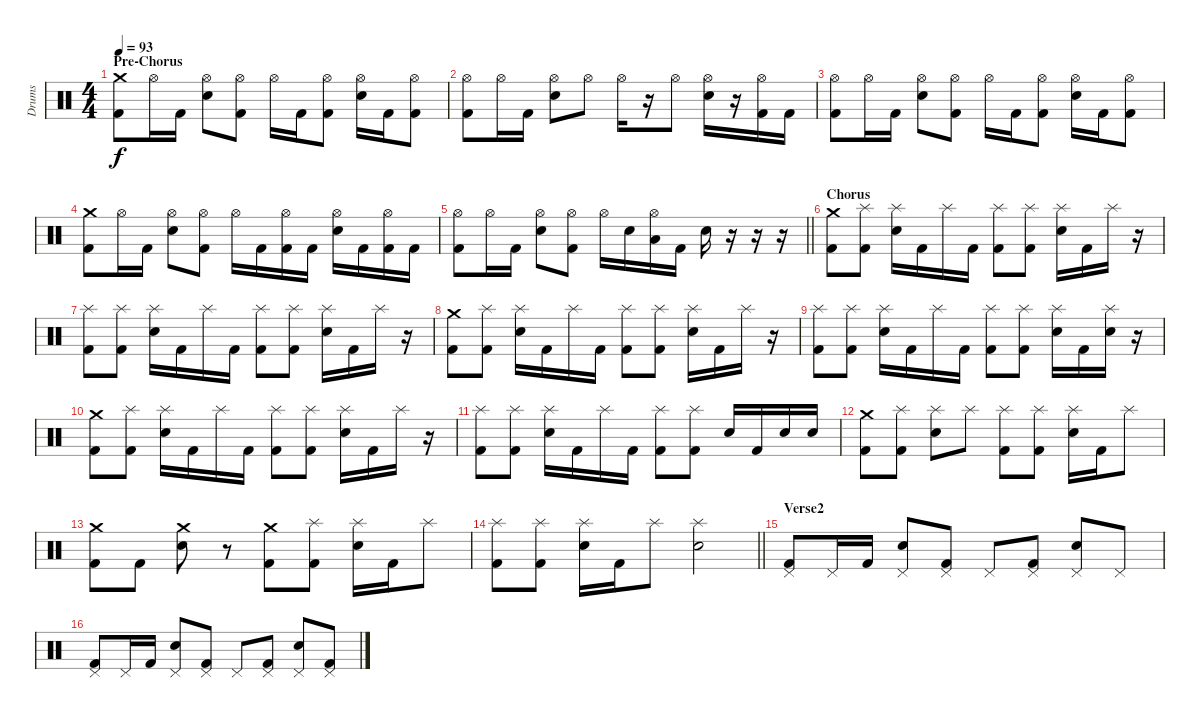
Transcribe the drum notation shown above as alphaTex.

\track ("Drums" "Drums") {instrument percussion}
\staff {score}
\articulation defaults
\ts (4 4)
\section ("" "Pre-Chorus")
\tempo 93
\clef neutral
\ks c
("Crash medium (hit)" "Kick (hit) 2").8{dy f} "Hi-Hat (open)".16 "Kick (hit) 2".16 ("Hi-Hat (open)" "Snare (hit) 2").8 ("Hi-Hat (open)" "Kick (hit) 2").8 "Hi-Hat (open)".16 "Kick (hit) 2".16 ("Hi-Hat (open)" "Kick (hit) 2").8 ("Hi-Hat (open)" "Snare (hit) 2").16 "Kick (hit) 2".16 ("Hi-Hat (open)" "Kick (hit) 2").8 |
("Hi-Hat (open)" "Kick (hit) 2").8 "Hi-Hat (open)".16 "Kick (hit) 2".16 ("Hi-Hat (open)" "Snare (hit) 2").8 "Hi-Hat (open)".8 "Hi-Hat (open)".16 r.16 "Hi-Hat (open)".8 ("Hi-Hat (open)" "Snare (hit) 2").16 r.16 ("Hi-Hat (open)" "Kick (hit) 2").16 "Kick (hit) 2".16 |
("Hi-Hat (open)" "Kick (hit) 2").8 "Hi-Hat (open)".16 "Kick (hit) 2".16 ("Hi-Hat (open)" "Snare (hit) 2").8 ("Hi-Hat (open)" "Kick (hit) 2").8 "Hi-Hat (open)".16 "Kick (hit) 2".16 ("Hi-Hat (open)" "Kick (hit) 2").8 ("Hi-Hat (open)" "Snare (hit) 2").16 "Kick (hit) 2".16 ("Hi-Hat (open)" "Kick (hit) 2").8 |
("Crash medium (hit)" "Kick (hit) 2").8 "Hi-Hat (open)".16 "Kick (hit) 2".16 ("Hi-Hat (open)" "Snare (hit) 2").8 ("Hi-Hat (open)" "Kick (hit) 2").8 "Hi-Hat (open)".16 "Kick (hit) 2".16 ("Hi-Hat (open)" "Kick (hit) 2").16 "Kick (hit) 2".16 ("Hi-Hat (open)" "Snare (hit) 2").16 "Kick (hit) 2".16 ("Hi-Hat (open)" "Kick (hit) 2").16 "Kick (hit) 2".16 |
\barLineRight lightlight
("Hi-Hat (open)" "Kick (hit) 2").8 "Hi-Hat (open)".16 "Kick (hit) 2".16 ("Hi-Hat (open)" "Snare (hit) 2").8 ("Hi-Hat (open)" "Kick (hit) 2").8 "Hi-Hat (open)".16 "Snare (hit) 2".16 ("Hi-Hat (open)" "Low Tom (hit)").16 "Kick (hit) 2".16 "Snare (hit) 2".16 r.16 r.16 r.16 |
\section ("" "Chorus")
("Crash medium (hit)" "Kick (hit) 2").8 ("Splash (hit)" "Kick (hit) 2").8 ("Splash (hit)" "Snare (hit) 2").16 "Kick (hit) 2".16 "Splash (hit)".16 "Kick (hit) 2".16 ("Splash (hit)" "Kick (hit) 2").8 ("Splash (hit)" "Kick (hit) 2").8 ("Splash (hit)" "Snare (hit) 2").16 "Kick (hit) 2".16 "Splash (hit)".16 r.16 |
("Splash (hit)" "Kick (hit) 2").8 ("Splash (hit)" "Kick (hit) 2").8 ("Splash (hit)" "Snare (hit) 2").16 "Kick (hit) 2".16 "Splash (hit)".16 "Kick (hit) 2".16 ("Splash (hit)" "Kick (hit) 2").8 ("Splash (hit)" "Kick (hit) 2").8 ("Splash (hit)" "Snare (hit) 2").16 "Kick (hit) 2".16 "Splash (hit)".16 r.16 |
("Crash medium (hit)" "Kick (hit) 2").8 ("Splash (hit)" "Kick (hit) 2").8 ("Splash (hit)" "Snare (hit) 2").16 "Kick (hit) 2".16 "Splash (hit)".16 "Kick (hit) 2".16 ("Splash (hit)" "Kick (hit) 2").8 ("Splash (hit)" "Kick (hit) 2").8 ("Splash (hit)" "Snare (hit) 2").16 "Kick (hit) 2".16 "Splash (hit)".16 r.16 |
("Splash (hit)" "Kick (hit) 2").8 ("Splash (hit)" "Kick (hit) 2").8 ("Splash (hit)" "Snare (hit) 2").16 "Kick (hit) 2".16 "Splash (hit)".16 "Kick (hit) 2".16 ("Splash (hit)" "Kick (hit) 2").8 ("Splash (hit)" "Kick (hit) 2").8 ("Splash (hit)" "Snare (hit) 2").16 "Kick (hit) 2".16 ("Splash (hit)" "Snare (hit) 2").16 r.16 |
("Crash medium (hit)" "Kick (hit) 2").8 ("Splash (hit)" "Kick (hit) 2").8 ("Splash (hit)" "Snare (hit) 2").16 "Kick (hit) 2".16 "Splash (hit)".16 "Kick (hit) 2".16 ("Splash (hit)" "Kick (hit) 2").8 ("Splash (hit)" "Kick (hit) 2").8 ("Splash (hit)" "Snare (hit) 2").16 "Kick (hit) 2".16 "Splash (hit)".16 r.16 |
("Splash (hit)" "Kick (hit) 2").8 ("Splash (hit)" "Kick (hit) 2").8 ("Splash (hit)" "Snare (hit) 2").16 "Kick (hit) 2".16 "Splash (hit)".16 "Kick (hit) 2".16 ("Splash (hit)" "Kick (hit) 2").8 ("Splash (hit)" "Kick (hit) 2").8 "Snare (hit) 2".16 "Kick (hit) 2".16 "Snare (hit) 2".16 "Snare (hit) 2".16 |
("Crash medium (hit)" "Kick (hit) 2").8 ("Splash (hit)" "Kick (hit) 2").8 ("Splash (hit)" "Snare (hit) 2").8 "Splash (hit)".8 ("Splash (hit)" "Kick (hit) 2").8 ("Splash (hit)" "Kick (hit) 2").8 ("Splash (hit)" "Snare (hit) 2").16 "Kick (hit) 2".16 "Splash (hit)".8 |
("Crash medium (hit)" "Kick (hit) 2").8 "Kick (hit) 2".8 ("Crash medium (hit)" "Snare (hit) 2").8 r.8 ("Crash medium (hit)" "Kick (hit) 2").8 ("Splash (hit)" "Kick (hit) 2").8 ("Splash (hit)" "Snare (hit) 2").16 "Kick (hit) 2".16 "Splash (hit)".8 |
\barLineRight lightlight
("Splash (hit)" "Kick (hit) 2").8 ("Splash (hit)" "Kick (hit) 2").8 ("Splash (hit)" "Snare (hit) 2").16 "Kick (hit) 2".16 "Splash (hit)".8 ("Splash (hit)" "Snare (hit) 2").2 |
\section ("" "Verse2")
("Pedal Hi-Hat (hit)" "Kick (hit) 2").8 "Pedal Hi-Hat (hit)".16 "Kick (hit) 2".16 ("Pedal Hi-Hat (hit)" "Snare (hit) 2").8 ("Pedal Hi-Hat (hit)" "Kick (hit) 2").8 "Pedal Hi-Hat (hit)".8 ("Pedal Hi-Hat (hit)" "Kick (hit) 2").8 ("Pedal Hi-Hat (hit)" "Snare (hit) 2").8 "Pedal Hi-Hat (hit)".8 |
("Pedal Hi-Hat (hit)" "Kick (hit) 2").8 "Pedal Hi-Hat (hit)".16 "Kick (hit) 2".16 ("Pedal Hi-Hat (hit)" "Snare (hit) 2").8 ("Pedal Hi-Hat (hit)" "Kick (hit) 2").8 "Pedal Hi-Hat (hit)".8 ("Pedal Hi-Hat (hit)" "Kick (hit) 2").8 ("Pedal Hi-Hat (hit)" "Snare (hit) 2").8 ("Pedal Hi-Hat (hit)" "Kick (hit) 2").8
